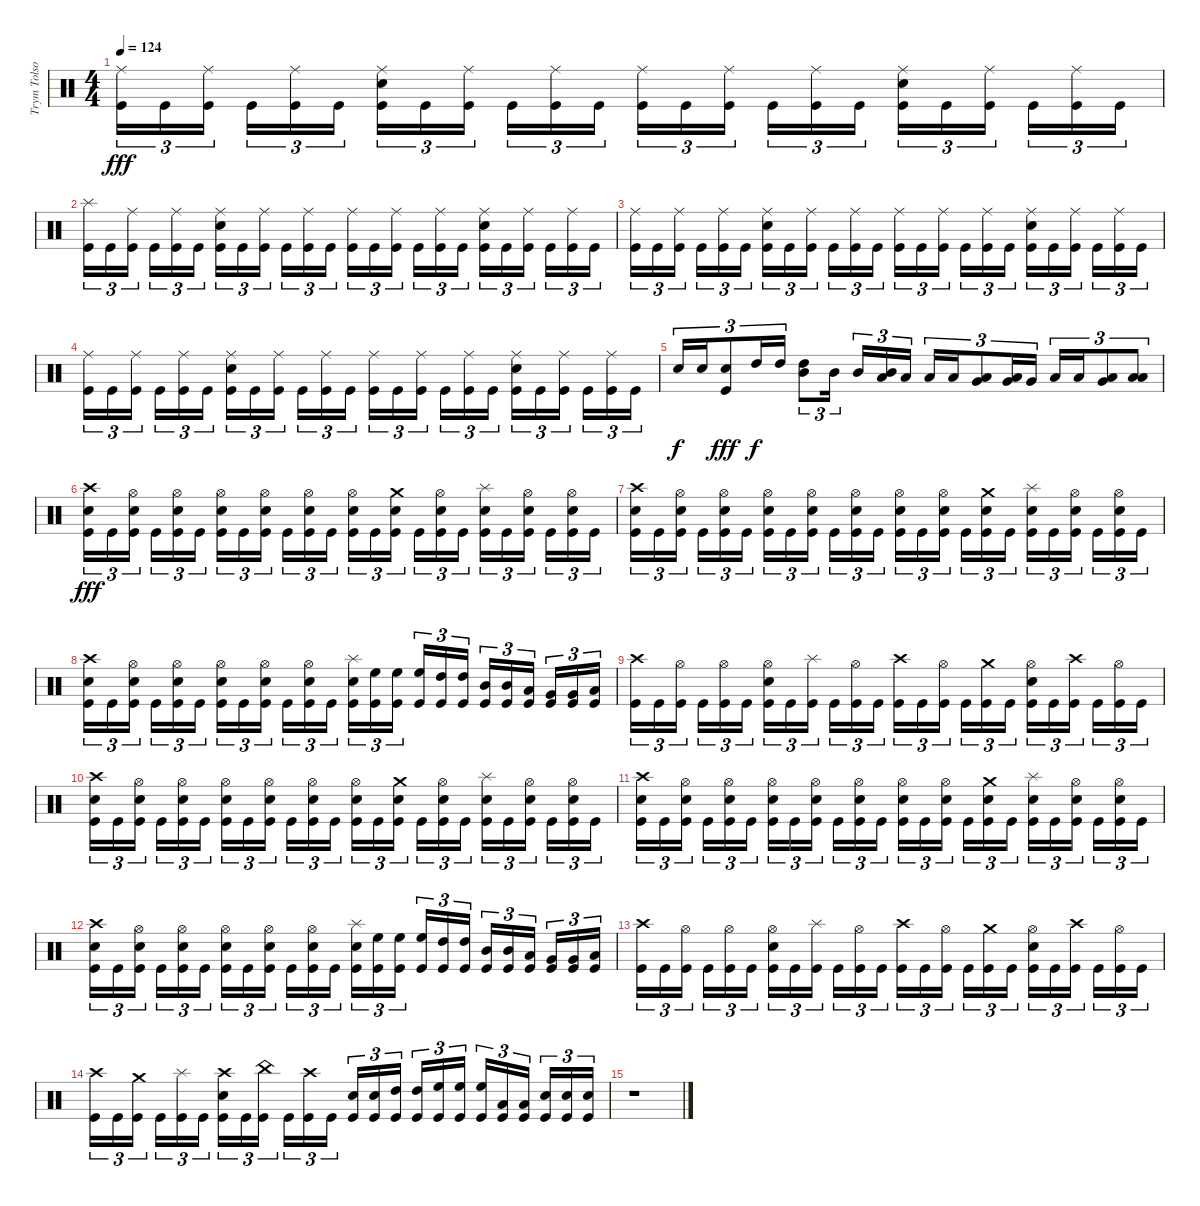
\track ("Trym Tolson" "Trym Tolso") {instrument percussion}
\staff {score}
\articulation defaults
\ts (4 4)
\tempo 124
\clef neutral
\ks c
("Ride (middle)" "Kick (hit)").16{tu (3 2) dy fff} "Kick (hit)".16{tu (3 2)} ("Ride (middle)" "Kick (hit)").16{tu (3 2)} "Kick (hit)".16{tu (3 2)} ("Ride (middle)" "Kick (hit)").16{tu (3 2)} "Kick (hit)".16{tu (3 2)} ("Ride (middle)" "Electric Snare (hit)" "Kick (hit)").16{tu (3 2)} "Kick (hit)".16{tu (3 2)} ("Ride (middle)" "Kick (hit)").16{tu (3 2)} "Kick (hit)".16{tu (3 2)} ("Ride (middle)" "Kick (hit)").16{tu (3 2)} "Kick (hit)".16{tu (3 2)} ("Ride (middle)" "Kick (hit)").16{tu (3 2)} "Kick (hit)".16{tu (3 2)} ("Ride (middle)" "Kick (hit)").16{tu (3 2)} "Kick (hit)".16{tu (3 2)} ("Ride (middle)" "Kick (hit)").16{tu (3 2)} "Kick (hit)".16{tu (3 2)} ("Ride (middle)" "Electric Snare (hit)" "Kick (hit)").16{tu (3 2)} "Kick (hit)".16{tu (3 2)} ("Ride (middle)" "Kick (hit)").16{tu (3 2)} "Kick (hit)".16{tu (3 2)} ("Ride (middle)" "Kick (hit)").16{tu (3 2)} "Kick (hit)".16{tu (3 2)} |
("Splash (hit)" "Kick (hit)").16{tu (3 2)} "Kick (hit)".16{tu (3 2)} ("Ride (middle)" "Kick (hit)").16{tu (3 2)} "Kick (hit)".16{tu (3 2)} ("Ride (middle)" "Kick (hit)").16{tu (3 2)} "Kick (hit)".16{tu (3 2)} ("Ride (middle)" "Electric Snare (hit)" "Kick (hit)").16{tu (3 2)} "Kick (hit)".16{tu (3 2)} ("Ride (middle)" "Kick (hit)").16{tu (3 2)} "Kick (hit)".16{tu (3 2)} ("Ride (middle)" "Kick (hit)").16{tu (3 2)} "Kick (hit)".16{tu (3 2)} ("Ride (middle)" "Kick (hit)").16{tu (3 2)} "Kick (hit)".16{tu (3 2)} ("Ride (middle)" "Kick (hit)").16{tu (3 2)} "Kick (hit)".16{tu (3 2)} ("Ride (middle)" "Kick (hit)").16{tu (3 2)} "Kick (hit)".16{tu (3 2)} ("Ride (middle)" "Electric Snare (hit)" "Kick (hit)").16{tu (3 2)} "Kick (hit)".16{tu (3 2)} ("Ride (middle)" "Kick (hit)").16{tu (3 2)} "Kick (hit)".16{tu (3 2)} ("Ride (middle)" "Kick (hit)").16{tu (3 2)} "Kick (hit)".16{tu (3 2)} |
("Ride (middle)" "Kick (hit)").16{tu (3 2)} "Kick (hit)".16{tu (3 2)} ("Ride (middle)" "Kick (hit)").16{tu (3 2)} "Kick (hit)".16{tu (3 2)} ("Ride (middle)" "Kick (hit)").16{tu (3 2)} "Kick (hit)".16{tu (3 2)} ("Ride (middle)" "Electric Snare (hit)" "Kick (hit)").16{tu (3 2)} "Kick (hit)".16{tu (3 2)} ("Ride (middle)" "Kick (hit)").16{tu (3 2)} "Kick (hit)".16{tu (3 2)} ("Ride (middle)" "Kick (hit)").16{tu (3 2)} "Kick (hit)".16{tu (3 2)} ("Ride (middle)" "Kick (hit)").16{tu (3 2)} "Kick (hit)".16{tu (3 2)} ("Ride (middle)" "Kick (hit)").16{tu (3 2)} "Kick (hit)".16{tu (3 2)} ("Ride (middle)" "Kick (hit)").16{tu (3 2)} "Kick (hit)".16{tu (3 2)} ("Ride (middle)" "Electric Snare (hit)" "Kick (hit)").16{tu (3 2)} "Kick (hit)".16{tu (3 2)} ("Ride (middle)" "Kick (hit)").16{tu (3 2)} "Kick (hit)".16{tu (3 2)} ("Ride (middle)" "Kick (hit)").16{tu (3 2)} "Kick (hit)".16{tu (3 2)} |
("Ride (middle)" "Kick (hit)").16{tu (3 2)} "Kick (hit)".16{tu (3 2)} ("Ride (middle)" "Kick (hit)").16{tu (3 2)} "Kick (hit)".16{tu (3 2)} ("Ride (middle)" "Kick (hit)").16{tu (3 2)} "Kick (hit)".16{tu (3 2)} ("Ride (middle)" "Electric Snare (hit)" "Kick (hit)").16{tu (3 2)} "Kick (hit)".16{tu (3 2)} ("Ride (middle)" "Kick (hit)").16{tu (3 2)} "Kick (hit)".16{tu (3 2)} ("Ride (middle)" "Kick (hit)").16{tu (3 2)} "Kick (hit)".16{tu (3 2)} ("Ride (middle)" "Kick (hit)").16{tu (3 2)} "Kick (hit)".16{tu (3 2)} ("Ride (middle)" "Kick (hit)").16{tu (3 2)} "Kick (hit)".16{tu (3 2)} ("Ride (middle)" "Kick (hit)").16{tu (3 2)} "Kick (hit)".16{tu (3 2)} ("Ride (middle)" "Electric Snare (hit)" "Kick (hit)").16{tu (3 2)} "Kick (hit)".16{tu (3 2)} ("Ride (middle)" "Kick (hit)").16{tu (3 2)} "Kick (hit)".16{tu (3 2)} ("Ride (middle)" "Kick (hit)").16{tu (3 2)} "Kick (hit)".16{tu (3 2)} |
"Electric Snare (hit)".16{tu (3 2) dy f} "Electric Snare (hit)".16{tu (3 2)} ("Electric Snare (hit)" "Kick (hit)").8{tu (3 2) dy fff} "High Tom (hit)".16{tu (3 2) dy f} "High Tom (hit)".16{tu (3 2)} ("Mid Tom (hit)" "High Tom (hit)").8{tu (3 2)} "Mid Tom (hit)".16{tu (3 2)} "Mid Tom (hit)".16{tu (3 2)} ("Low Tom (hit)" "Mid Tom (hit)").16{tu (3 2)} "Low Tom (hit)".16{tu (3 2)} "Low Tom (hit)".16{tu (3 2)} "Low Tom (hit)".16{tu (3 2)} ("Very Low Tom (hit)" "Low Tom (hit)").8{tu (3 2)} ("Very Low Tom (hit)" "Low Tom (hit)").16{tu (3 2)} "Very Low Tom (hit)".16{tu (3 2)} "Low Floor Tom (hit)".16{tu (3 2)} "Low Floor Tom (hit)".16{tu (3 2)} ("Low Floor Tom (hit)" "Very Low Tom (hit)").8{tu (3 2)} ("Low Floor Tom (hit)" "Low Floor Tom (hit)").8{tu (3 2)} |
("Crash high (hit)" "Electric Snare (hit)" "Kick (hit)").16{tu (3 2) dy fff} "Kick (hit)".16{tu (3 2)} ("Hi-Hat (open)" "Electric Snare (hit)" "Kick (hit)").16{tu (3 2)} "Kick (hit)".16{tu (3 2)} ("Hi-Hat (open)" "Electric Snare (hit)" "Kick (hit)").16{tu (3 2)} "Kick (hit)".16{tu (3 2)} ("Hi-Hat (open)" "Electric Snare (hit)" "Kick (hit)").16{tu (3 2)} "Kick (hit)".16{tu (3 2)} ("Hi-Hat (open)" "Electric Snare (hit)" "Kick (hit)").16{tu (3 2)} "Kick (hit)".16{tu (3 2)} ("Hi-Hat (open)" "Electric Snare (hit)" "Kick (hit)").16{tu (3 2)} "Kick (hit)".16{tu (3 2)} ("Hi-Hat (open)" "Electric Snare (hit)" "Kick (hit)").16{tu (3 2)} "Kick (hit)".16{tu (3 2)} ("Crash medium (hit)" "Electric Snare (hit)" "Kick (hit)").16{tu (3 2)} "Kick (hit)".16{tu (3 2)} ("Hi-Hat (open)" "Electric Snare (hit)" "Kick (hit)").16{tu (3 2)} "Kick (hit)".16{tu (3 2)} ("Splash (hit)" "Electric Snare (hit)" "Kick (hit)").16{tu (3 2)} "Kick (hit)".16{tu (3 2)} ("Hi-Hat (open)" "Electric Snare (hit)" "Kick (hit)").16{tu (3 2)} "Kick (hit)".16{tu (3 2)} ("Hi-Hat (open)" "Electric Snare (hit)" "Kick (hit)").16{tu (3 2)} "Kick (hit)".16{tu (3 2)} |
("Crash high (hit)" "Electric Snare (hit)" "Kick (hit)").16{tu (3 2)} "Kick (hit)".16{tu (3 2)} ("Hi-Hat (open)" "Electric Snare (hit)" "Kick (hit)").16{tu (3 2)} "Kick (hit)".16{tu (3 2)} ("Hi-Hat (open)" "Electric Snare (hit)" "Kick (hit)").16{tu (3 2)} "Kick (hit)".16{tu (3 2)} ("Hi-Hat (open)" "Electric Snare (hit)" "Kick (hit)").16{tu (3 2)} "Kick (hit)".16{tu (3 2)} ("Hi-Hat (open)" "Electric Snare (hit)" "Kick (hit)").16{tu (3 2)} "Kick (hit)".16{tu (3 2)} ("Hi-Hat (open)" "Electric Snare (hit)" "Kick (hit)").16{tu (3 2)} "Kick (hit)".16{tu (3 2)} ("Hi-Hat (open)" "Electric Snare (hit)" "Kick (hit)").16{tu (3 2)} "Kick (hit)".16{tu (3 2)} ("Hi-Hat (open)" "Electric Snare (hit)" "Kick (hit)").16{tu (3 2)} "Kick (hit)".16{tu (3 2)} ("Crash medium (hit)" "Electric Snare (hit)" "Kick (hit)").16{tu (3 2)} "Kick (hit)".16{tu (3 2)} ("Splash (hit)" "Electric Snare (hit)" "Kick (hit)").16{tu (3 2)} "Kick (hit)".16{tu (3 2)} ("Hi-Hat (open)" "Electric Snare (hit)" "Kick (hit)").16{tu (3 2)} "Kick (hit)".16{tu (3 2)} ("Hi-Hat (open)" "Electric Snare (hit)" "Kick (hit)").16{tu (3 2)} "Kick (hit)".16{tu (3 2)} |
("Crash high (hit)" "Electric Snare (hit)" "Kick (hit)").16{tu (3 2)} "Kick (hit)".16{tu (3 2)} ("Hi-Hat (open)" "Electric Snare (hit)" "Kick (hit)").16{tu (3 2)} "Kick (hit)".16{tu (3 2)} ("Hi-Hat (open)" "Electric Snare (hit)" "Kick (hit)").16{tu (3 2)} "Kick (hit)".16{tu (3 2)} ("Hi-Hat (open)" "Electric Snare (hit)" "Kick (hit)").16{tu (3 2)} "Kick (hit)".16{tu (3 2)} ("Hi-Hat (open)" "Electric Snare (hit)" "Kick (hit)").16{tu (3 2)} "Kick (hit)".16{tu (3 2)} ("Hi-Hat (open)" "Electric Snare (hit)" "Kick (hit)").16{tu (3 2)} "Kick (hit)".16{tu (3 2)} ("Splash (hit)" "Electric Snare (hit)" "Kick (hit)").16{tu (3 2)} ("High Floor Tom (hit)" "Kick (hit)").16{tu (3 2)} ("High Floor Tom (hit)" "Kick (hit)").16{tu (3 2)} ("High Floor Tom (hit)" "Kick (hit)").16{tu (3 2)} ("High Tom (hit)" "Kick (hit)").16{tu (3 2)} ("High Tom (hit)" "Kick (hit)").16{tu (3 2)} ("Mid Tom (hit)" "Kick (hit)").16{tu (3 2)} ("Mid Tom (hit)" "Kick (hit)").16{tu (3 2)} ("Low Tom (hit)" "Kick (hit)").16{tu (3 2)} ("Very Low Tom (hit)" "Kick (hit)").16{tu (3 2)} ("Very Low Tom (hit)" "Kick (hit)").16{tu (3 2)} ("Low Floor Tom (hit)" "Kick (hit)").16{tu (3 2)} |
("Crash high (hit)" "Kick (hit)").16{tu (3 2)} "Kick (hit)".16{tu (3 2)} ("Hi-Hat (open)" "Kick (hit)").16{tu (3 2)} "Kick (hit)".16{tu (3 2)} ("Hi-Hat (open)" "Kick (hit)").16{tu (3 2)} "Kick (hit)".16{tu (3 2)} ("Hi-Hat (open)" "Electric Snare (hit)" "Kick (hit)").16{tu (3 2)} "Kick (hit)".16{tu (3 2)} ("Splash (hit)" "Kick (hit)").16{tu (3 2)} "Kick (hit)".16{tu (3 2)} ("Hi-Hat (open)" "Kick (hit)").16{tu (3 2)} "Kick (hit)".16{tu (3 2)} ("Crash high (hit)" "Kick (hit)").16{tu (3 2)} "Kick (hit)".16{tu (3 2)} ("Hi-Hat (open)" "Kick (hit)").16{tu (3 2)} "Kick (hit)".16{tu (3 2)} ("Crash medium (hit)" "Kick (hit)").16{tu (3 2)} "Kick (hit)".16{tu (3 2)} ("Hi-Hat (open)" "Electric Snare (hit)" "Kick (hit)").16{tu (3 2)} "Kick (hit)".16{tu (3 2)} ("Crash high (hit)" "Kick (hit)").16{tu (3 2)} "Kick (hit)".16{tu (3 2)} ("Hi-Hat (open)" "Kick (hit)").16{tu (3 2)} "Kick (hit)".16{tu (3 2)} |
("Crash high (hit)" "Electric Snare (hit)" "Kick (hit)").16{tu (3 2)} "Kick (hit)".16{tu (3 2)} ("Hi-Hat (open)" "Electric Snare (hit)" "Kick (hit)").16{tu (3 2)} "Kick (hit)".16{tu (3 2)} ("Hi-Hat (open)" "Electric Snare (hit)" "Kick (hit)").16{tu (3 2)} "Kick (hit)".16{tu (3 2)} ("Hi-Hat (open)" "Electric Snare (hit)" "Kick (hit)").16{tu (3 2)} "Kick (hit)".16{tu (3 2)} ("Hi-Hat (open)" "Electric Snare (hit)" "Kick (hit)").16{tu (3 2)} "Kick (hit)".16{tu (3 2)} ("Hi-Hat (open)" "Electric Snare (hit)" "Kick (hit)").16{tu (3 2)} "Kick (hit)".16{tu (3 2)} ("Hi-Hat (open)" "Electric Snare (hit)" "Kick (hit)").16{tu (3 2)} "Kick (hit)".16{tu (3 2)} ("Crash medium (hit)" "Electric Snare (hit)" "Kick (hit)").16{tu (3 2)} "Kick (hit)".16{tu (3 2)} ("Hi-Hat (open)" "Electric Snare (hit)" "Kick (hit)").16{tu (3 2)} "Kick (hit)".16{tu (3 2)} ("Splash (hit)" "Electric Snare (hit)" "Kick (hit)").16{tu (3 2)} "Kick (hit)".16{tu (3 2)} ("Hi-Hat (open)" "Electric Snare (hit)" "Kick (hit)").16{tu (3 2)} "Kick (hit)".16{tu (3 2)} ("Hi-Hat (open)" "Electric Snare (hit)" "Kick (hit)").16{tu (3 2)} "Kick (hit)".16{tu (3 2)} |
("Crash high (hit)" "Electric Snare (hit)" "Kick (hit)").16{tu (3 2)} "Kick (hit)".16{tu (3 2)} ("Hi-Hat (open)" "Electric Snare (hit)" "Kick (hit)").16{tu (3 2)} "Kick (hit)".16{tu (3 2)} ("Hi-Hat (open)" "Electric Snare (hit)" "Kick (hit)").16{tu (3 2)} "Kick (hit)".16{tu (3 2)} ("Hi-Hat (open)" "Electric Snare (hit)" "Kick (hit)").16{tu (3 2)} "Kick (hit)".16{tu (3 2)} ("Hi-Hat (open)" "Electric Snare (hit)" "Kick (hit)").16{tu (3 2)} "Kick (hit)".16{tu (3 2)} ("Hi-Hat (open)" "Electric Snare (hit)" "Kick (hit)").16{tu (3 2)} "Kick (hit)".16{tu (3 2)} ("Hi-Hat (open)" "Electric Snare (hit)" "Kick (hit)").16{tu (3 2)} "Kick (hit)".16{tu (3 2)} ("Hi-Hat (open)" "Electric Snare (hit)" "Kick (hit)").16{tu (3 2)} "Kick (hit)".16{tu (3 2)} ("Crash medium (hit)" "Electric Snare (hit)" "Kick (hit)").16{tu (3 2)} "Kick (hit)".16{tu (3 2)} ("Splash (hit)" "Electric Snare (hit)" "Kick (hit)").16{tu (3 2)} "Kick (hit)".16{tu (3 2)} ("Hi-Hat (open)" "Electric Snare (hit)" "Kick (hit)").16{tu (3 2)} "Kick (hit)".16{tu (3 2)} ("Hi-Hat (open)" "Electric Snare (hit)" "Kick (hit)").16{tu (3 2)} "Kick (hit)".16{tu (3 2)} |
("Crash high (hit)" "Electric Snare (hit)" "Kick (hit)").16{tu (3 2)} "Kick (hit)".16{tu (3 2)} ("Hi-Hat (open)" "Electric Snare (hit)" "Kick (hit)").16{tu (3 2)} "Kick (hit)".16{tu (3 2)} ("Hi-Hat (open)" "Electric Snare (hit)" "Kick (hit)").16{tu (3 2)} "Kick (hit)".16{tu (3 2)} ("Hi-Hat (open)" "Electric Snare (hit)" "Kick (hit)").16{tu (3 2)} "Kick (hit)".16{tu (3 2)} ("Hi-Hat (open)" "Electric Snare (hit)" "Kick (hit)").16{tu (3 2)} "Kick (hit)".16{tu (3 2)} ("Hi-Hat (open)" "Electric Snare (hit)" "Kick (hit)").16{tu (3 2)} "Kick (hit)".16{tu (3 2)} ("Splash (hit)" "Electric Snare (hit)" "Kick (hit)").16{tu (3 2)} ("High Floor Tom (hit)" "Kick (hit)").16{tu (3 2)} ("High Floor Tom (hit)" "Kick (hit)").16{tu (3 2)} ("High Floor Tom (hit)" "Kick (hit)").16{tu (3 2)} ("High Tom (hit)" "Kick (hit)").16{tu (3 2)} ("High Tom (hit)" "Kick (hit)").16{tu (3 2)} ("Mid Tom (hit)" "Kick (hit)").16{tu (3 2)} ("Mid Tom (hit)" "Kick (hit)").16{tu (3 2)} ("Low Tom (hit)" "Kick (hit)").16{tu (3 2)} ("Very Low Tom (hit)" "Kick (hit)").16{tu (3 2)} ("Very Low Tom (hit)" "Kick (hit)").16{tu (3 2)} ("Low Floor Tom (hit)" "Kick (hit)").16{tu (3 2)} |
("Crash high (hit)" "Kick (hit)").16{tu (3 2)} "Kick (hit)".16{tu (3 2)} ("Hi-Hat (open)" "Kick (hit)").16{tu (3 2)} "Kick (hit)".16{tu (3 2)} ("Hi-Hat (open)" "Kick (hit)").16{tu (3 2)} "Kick (hit)".16{tu (3 2)} ("Hi-Hat (open)" "Electric Snare (hit)" "Kick (hit)").16{tu (3 2)} "Kick (hit)".16{tu (3 2)} ("Splash (hit)" "Kick (hit)").16{tu (3 2)} "Kick (hit)".16{tu (3 2)} ("Hi-Hat (open)" "Kick (hit)").16{tu (3 2)} "Kick (hit)".16{tu (3 2)} ("Crash high (hit)" "Kick (hit)").16{tu (3 2)} "Kick (hit)".16{tu (3 2)} ("Hi-Hat (open)" "Kick (hit)").16{tu (3 2)} "Kick (hit)".16{tu (3 2)} ("Crash medium (hit)" "Kick (hit)").16{tu (3 2)} "Kick (hit)".16{tu (3 2)} ("Hi-Hat (open)" "Electric Snare (hit)" "Kick (hit)").16{tu (3 2)} "Kick (hit)".16{tu (3 2)} ("Crash high (hit)" "Kick (hit)").16{tu (3 2)} "Kick (hit)".16{tu (3 2)} ("Hi-Hat (open)" "Kick (hit)").16{tu (3 2)} "Kick (hit)".16{tu (3 2)} |
("Crash high (hit)" "Kick (hit)").16{tu (3 2)} "Kick (hit)".16{tu (3 2)} ("Crash medium (hit)" "Kick (hit)").16{tu (3 2)} "Kick (hit)".16{tu (3 2)} ("Splash (hit)" "Kick (hit)").16{tu (3 2)} "Kick (hit)".16{tu (3 2)} ("Crash high (hit)" "Electric Snare (hit)" "Kick (hit)").16{tu (3 2)} "Kick (hit)".16{tu (3 2)} ("China (hit)" "Kick (hit)").16{tu (3 2)} "Kick (hit)".16{tu (3 2)} ("Crash high (hit)" "Kick (hit)").16{tu (3 2)} "Kick (hit)".16{tu (3 2)} ("Electric Snare (hit)" "Kick (hit)").16{tu (3 2)} ("Electric Snare (hit)" "Kick (hit)").16{tu (3 2)} ("High Tom (hit)" "Kick (hit)").16{tu (3 2)} ("High Tom (hit)" "Kick (hit)").16{tu (3 2)} ("High Floor Tom (hit)" "Kick (hit)").16{tu (3 2)} ("High Floor Tom (hit)" "Kick (hit)").16{tu (3 2)} ("High Floor Tom (hit)" "Kick (hit)").16{tu (3 2)} ("Low Tom (hit)" "Kick (hit)").16{tu (3 2)} ("Low Tom (hit)" "Kick (hit)").16{tu (3 2)} ("Electric Snare (hit)" "Kick (hit)").16{tu (3 2)} ("Electric Snare (hit)" "Kick (hit)").16{tu (3 2)} ("Electric Snare (hit)" "Kick (hit)").16{tu (3 2)} |
r.1
